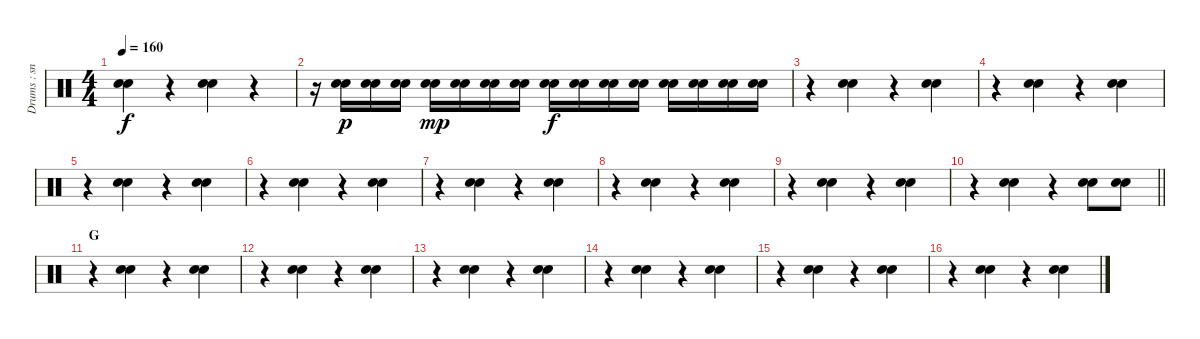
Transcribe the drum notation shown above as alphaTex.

\track ("Drums : snare" "Drums : sn") {instrument percussion}
\staff {score}
\articulation defaults
\ts (4 4)
\tempo 160
\clef neutral
\ks c
("Snare (hit) 2" "Snare (hit) 2").4{dy f} r.4 ("Snare (hit) 2" "Electric Snare (hit)").4 r.4 |
r.16 ("Snare (hit) 2" "Electric Snare (hit)").16{dy p} ("Snare (hit) 2" "Electric Snare (hit)").16 ("Snare (hit) 2" "Electric Snare (hit)").16 ("Snare (hit) 2" "Electric Snare (hit)").16{dy mp} ("Snare (hit) 2" "Electric Snare (hit)").16 ("Snare (hit) 2" "Electric Snare (hit)").16 ("Snare (hit) 2" "Electric Snare (hit)").16 ("Snare (hit) 2" "Electric Snare (hit)").16{dy f} ("Snare (hit) 2" "Electric Snare (hit)").16 ("Snare (hit) 2" "Electric Snare (hit)").16 ("Snare (hit) 2" "Electric Snare (hit)").16 ("Snare (hit) 2" "Electric Snare (hit)").16 ("Snare (hit) 2" "Electric Snare (hit)").16 ("Snare (hit) 2" "Electric Snare (hit)").16 ("Snare (hit) 2" "Electric Snare (hit)").16 |
r.4 ("Snare (hit) 2" "Electric Snare (hit)").4 r.4 ("Snare (hit) 2" "Electric Snare (hit)").4 |
r.4 ("Snare (hit) 2" "Electric Snare (hit)").4 r.4 ("Snare (hit) 2" "Electric Snare (hit)").4 |
r.4 ("Snare (hit) 2" "Electric Snare (hit)").4 r.4 ("Snare (hit) 2" "Electric Snare (hit)").4 |
r.4 ("Snare (hit) 2" "Electric Snare (hit)").4 r.4 ("Snare (hit) 2" "Electric Snare (hit)").4 |
r.4 ("Snare (hit) 2" "Electric Snare (hit)").4 r.4 ("Snare (hit) 2" "Electric Snare (hit)").4 |
r.4 ("Snare (hit) 2" "Electric Snare (hit)").4 r.4 ("Snare (hit) 2" "Electric Snare (hit)").4 |
r.4 ("Snare (hit) 2" "Electric Snare (hit)").4 r.4 ("Snare (hit) 2" "Electric Snare (hit)").4 |
\barLineRight lightlight
r.4 ("Snare (hit) 2" "Electric Snare (hit)").4 r.4 ("Snare (hit) 2" "Electric Snare (hit)").8 ("Snare (hit) 2" "Electric Snare (hit)").8 |
\section ("" "G")
r.4 ("Snare (hit) 2" "Electric Snare (hit)").4 r.4 ("Snare (hit) 2" "Electric Snare (hit)").4 |
r.4 ("Snare (hit) 2" "Electric Snare (hit)").4 r.4 ("Snare (hit) 2" "Electric Snare (hit)").4 |
r.4 ("Snare (hit) 2" "Electric Snare (hit)").4 r.4 ("Snare (hit) 2" "Electric Snare (hit)").4 |
r.4 ("Snare (hit) 2" "Electric Snare (hit)").4 r.4 ("Snare (hit) 2" "Electric Snare (hit)").4 |
r.4 ("Snare (hit) 2" "Electric Snare (hit)").4 r.4 ("Snare (hit) 2" "Electric Snare (hit)").4 |
r.4 ("Snare (hit) 2" "Electric Snare (hit)").4 r.4 ("Snare (hit) 2" "Electric Snare (hit)").4
